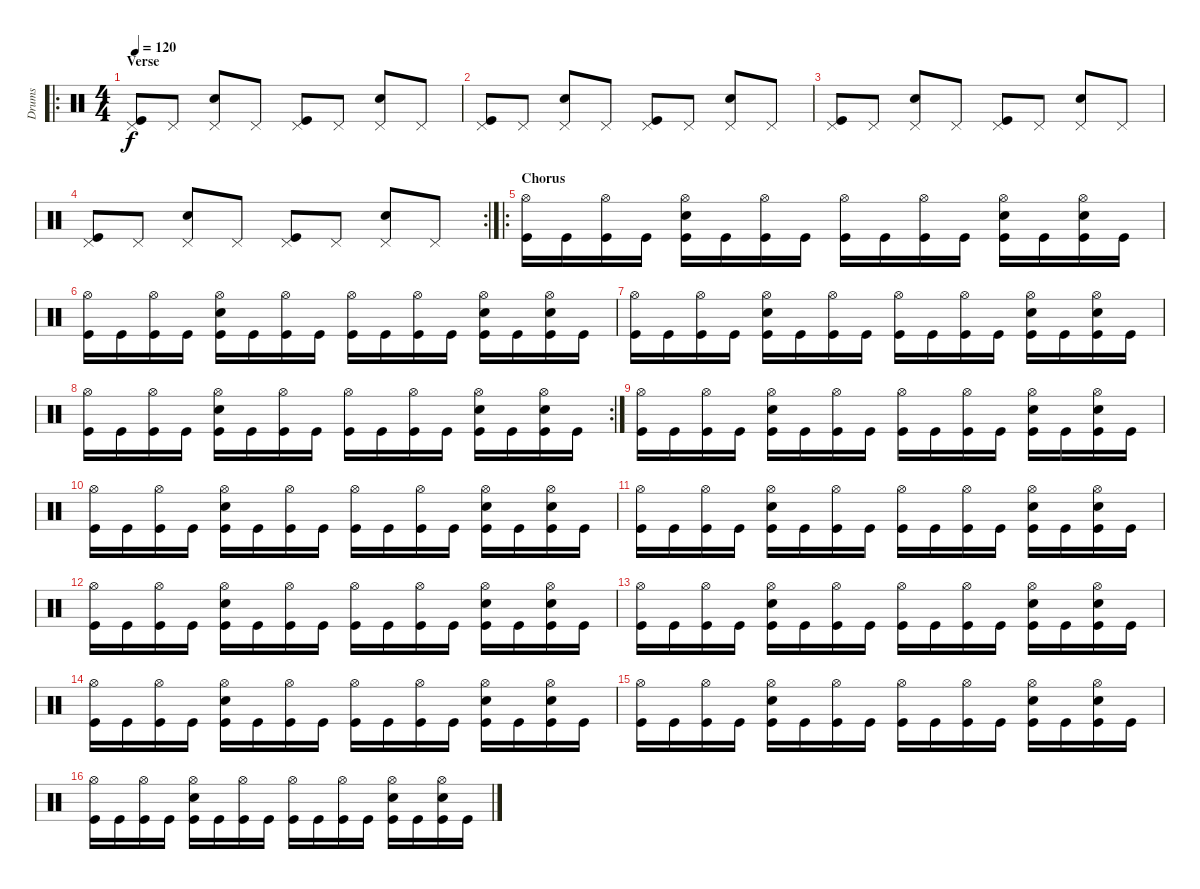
\track ("Drums" "Drums") {instrument percussion}
\staff {score}
\articulation defaults
\ro
\ts (4 4)
\section ("" "Verse")
\tempo 120
\clef neutral
\ks c
("Pedal Hi-Hat (hit)" "Kick (hit)").8{dy f} "Pedal Hi-Hat (hit)".8 ("Pedal Hi-Hat (hit)" "Snare (hit) 2").8 "Pedal Hi-Hat (hit)".8 ("Pedal Hi-Hat (hit)" "Kick (hit)").8 "Pedal Hi-Hat (hit)".8 ("Pedal Hi-Hat (hit)" "Snare (hit) 2").8 "Pedal Hi-Hat (hit)".8 |
("Pedal Hi-Hat (hit)" "Kick (hit)").8 "Pedal Hi-Hat (hit)".8 ("Pedal Hi-Hat (hit)" "Snare (hit) 2").8 "Pedal Hi-Hat (hit)".8 ("Pedal Hi-Hat (hit)" "Kick (hit)").8 "Pedal Hi-Hat (hit)".8 ("Pedal Hi-Hat (hit)" "Snare (hit) 2").8 "Pedal Hi-Hat (hit)".8 |
("Pedal Hi-Hat (hit)" "Kick (hit)").8 "Pedal Hi-Hat (hit)".8 ("Pedal Hi-Hat (hit)" "Snare (hit) 2").8 "Pedal Hi-Hat (hit)".8 ("Pedal Hi-Hat (hit)" "Kick (hit)").8 "Pedal Hi-Hat (hit)".8 ("Pedal Hi-Hat (hit)" "Snare (hit) 2").8 "Pedal Hi-Hat (hit)".8 |
\rc 2
("Pedal Hi-Hat (hit)" "Kick (hit)").8 "Pedal Hi-Hat (hit)".8 ("Pedal Hi-Hat (hit)" "Snare (hit) 2").8 "Pedal Hi-Hat (hit)".8 ("Pedal Hi-Hat (hit)" "Kick (hit)").8 "Pedal Hi-Hat (hit)".8 ("Pedal Hi-Hat (hit)" "Snare (hit) 2").8 "Pedal Hi-Hat (hit)".8 |
\ro
\section ("" "Chorus")
("Hi-Hat (open)" "Kick (hit)").16 "Kick (hit)".16 ("Hi-Hat (open)" "Kick (hit)").16 "Kick (hit)".16 ("Hi-Hat (open)" "Snare (hit) 2" "Kick (hit)").16 "Kick (hit)".16 ("Hi-Hat (open)" "Kick (hit)").16 "Kick (hit)".16 ("Hi-Hat (open)" "Kick (hit)").16 "Kick (hit)".16 ("Hi-Hat (open)" "Kick (hit)").16 "Kick (hit)".16 ("Hi-Hat (open)" "Snare (hit) 2" "Kick (hit)").16 "Kick (hit)".16 ("Hi-Hat (open)" "Snare (hit) 2" "Kick (hit)").16 "Kick (hit)".16 |
("Hi-Hat (open)" "Kick (hit)").16 "Kick (hit)".16 ("Hi-Hat (open)" "Kick (hit)").16 "Kick (hit)".16 ("Hi-Hat (open)" "Snare (hit) 2" "Kick (hit)").16 "Kick (hit)".16 ("Hi-Hat (open)" "Kick (hit)").16 "Kick (hit)".16 ("Hi-Hat (open)" "Kick (hit)").16 "Kick (hit)".16 ("Hi-Hat (open)" "Kick (hit)").16 "Kick (hit)".16 ("Hi-Hat (open)" "Snare (hit) 2" "Kick (hit)").16 "Kick (hit)".16 ("Hi-Hat (open)" "Snare (hit) 2" "Kick (hit)").16 "Kick (hit)".16 |
("Hi-Hat (open)" "Kick (hit)").16 "Kick (hit)".16 ("Hi-Hat (open)" "Kick (hit)").16 "Kick (hit)".16 ("Hi-Hat (open)" "Snare (hit) 2" "Kick (hit)").16 "Kick (hit)".16 ("Hi-Hat (open)" "Kick (hit)").16 "Kick (hit)".16 ("Hi-Hat (open)" "Kick (hit)").16 "Kick (hit)".16 ("Hi-Hat (open)" "Kick (hit)").16 "Kick (hit)".16 ("Hi-Hat (open)" "Snare (hit) 2" "Kick (hit)").16 "Kick (hit)".16 ("Hi-Hat (open)" "Snare (hit) 2" "Kick (hit)").16 "Kick (hit)".16 |
\rc 2
("Hi-Hat (open)" "Kick (hit)").16 "Kick (hit)".16 ("Hi-Hat (open)" "Kick (hit)").16 "Kick (hit)".16 ("Hi-Hat (open)" "Snare (hit) 2" "Kick (hit)").16 "Kick (hit)".16 ("Hi-Hat (open)" "Kick (hit)").16 "Kick (hit)".16 ("Hi-Hat (open)" "Kick (hit)").16 "Kick (hit)".16 ("Hi-Hat (open)" "Kick (hit)").16 "Kick (hit)".16 ("Hi-Hat (open)" "Snare (hit) 2" "Kick (hit)").16 "Kick (hit)".16 ("Hi-Hat (open)" "Snare (hit) 2" "Kick (hit)").16 "Kick (hit)".16 |
("Hi-Hat (open)" "Kick (hit)").16 "Kick (hit)".16 ("Hi-Hat (open)" "Kick (hit)").16 "Kick (hit)".16 ("Hi-Hat (open)" "Snare (hit) 2" "Kick (hit)").16 "Kick (hit)".16 ("Hi-Hat (open)" "Kick (hit)").16 "Kick (hit)".16 ("Hi-Hat (open)" "Kick (hit)").16 "Kick (hit)".16 ("Hi-Hat (open)" "Kick (hit)").16 "Kick (hit)".16 ("Hi-Hat (open)" "Snare (hit) 2" "Kick (hit)").16 "Kick (hit)".16 ("Hi-Hat (open)" "Snare (hit) 2" "Kick (hit)").16 "Kick (hit)".16 |
("Hi-Hat (open)" "Kick (hit)").16 "Kick (hit)".16 ("Hi-Hat (open)" "Kick (hit)").16 "Kick (hit)".16 ("Hi-Hat (open)" "Snare (hit) 2" "Kick (hit)").16 "Kick (hit)".16 ("Hi-Hat (open)" "Kick (hit)").16 "Kick (hit)".16 ("Hi-Hat (open)" "Kick (hit)").16 "Kick (hit)".16 ("Hi-Hat (open)" "Kick (hit)").16 "Kick (hit)".16 ("Hi-Hat (open)" "Snare (hit) 2" "Kick (hit)").16 "Kick (hit)".16 ("Hi-Hat (open)" "Snare (hit) 2" "Kick (hit)").16 "Kick (hit)".16 |
("Hi-Hat (open)" "Kick (hit)").16 "Kick (hit)".16 ("Hi-Hat (open)" "Kick (hit)").16 "Kick (hit)".16 ("Hi-Hat (open)" "Snare (hit) 2" "Kick (hit)").16 "Kick (hit)".16 ("Hi-Hat (open)" "Kick (hit)").16 "Kick (hit)".16 ("Hi-Hat (open)" "Kick (hit)").16 "Kick (hit)".16 ("Hi-Hat (open)" "Kick (hit)").16 "Kick (hit)".16 ("Hi-Hat (open)" "Snare (hit) 2" "Kick (hit)").16 "Kick (hit)".16 ("Hi-Hat (open)" "Snare (hit) 2" "Kick (hit)").16 "Kick (hit)".16 |
("Hi-Hat (open)" "Kick (hit)").16 "Kick (hit)".16 ("Hi-Hat (open)" "Kick (hit)").16 "Kick (hit)".16 ("Hi-Hat (open)" "Snare (hit) 2" "Kick (hit)").16 "Kick (hit)".16 ("Hi-Hat (open)" "Kick (hit)").16 "Kick (hit)".16 ("Hi-Hat (open)" "Kick (hit)").16 "Kick (hit)".16 ("Hi-Hat (open)" "Kick (hit)").16 "Kick (hit)".16 ("Hi-Hat (open)" "Snare (hit) 2" "Kick (hit)").16 "Kick (hit)".16 ("Hi-Hat (open)" "Snare (hit) 2" "Kick (hit)").16 "Kick (hit)".16 |
("Hi-Hat (open)" "Kick (hit)").16 "Kick (hit)".16 ("Hi-Hat (open)" "Kick (hit)").16 "Kick (hit)".16 ("Hi-Hat (open)" "Snare (hit) 2" "Kick (hit)").16 "Kick (hit)".16 ("Hi-Hat (open)" "Kick (hit)").16 "Kick (hit)".16 ("Hi-Hat (open)" "Kick (hit)").16 "Kick (hit)".16 ("Hi-Hat (open)" "Kick (hit)").16 "Kick (hit)".16 ("Hi-Hat (open)" "Snare (hit) 2" "Kick (hit)").16 "Kick (hit)".16 ("Hi-Hat (open)" "Snare (hit) 2" "Kick (hit)").16 "Kick (hit)".16 |
("Hi-Hat (open)" "Kick (hit)").16 "Kick (hit)".16 ("Hi-Hat (open)" "Kick (hit)").16 "Kick (hit)".16 ("Hi-Hat (open)" "Snare (hit) 2" "Kick (hit)").16 "Kick (hit)".16 ("Hi-Hat (open)" "Kick (hit)").16 "Kick (hit)".16 ("Hi-Hat (open)" "Kick (hit)").16 "Kick (hit)".16 ("Hi-Hat (open)" "Kick (hit)").16 "Kick (hit)".16 ("Hi-Hat (open)" "Snare (hit) 2" "Kick (hit)").16 "Kick (hit)".16 ("Hi-Hat (open)" "Snare (hit) 2" "Kick (hit)").16 "Kick (hit)".16 |
("Hi-Hat (open)" "Kick (hit)").16 "Kick (hit)".16 ("Hi-Hat (open)" "Kick (hit)").16 "Kick (hit)".16 ("Hi-Hat (open)" "Snare (hit) 2" "Kick (hit)").16 "Kick (hit)".16 ("Hi-Hat (open)" "Kick (hit)").16 "Kick (hit)".16 ("Hi-Hat (open)" "Kick (hit)").16 "Kick (hit)".16 ("Hi-Hat (open)" "Kick (hit)").16 "Kick (hit)".16 ("Hi-Hat (open)" "Snare (hit) 2" "Kick (hit)").16 "Kick (hit)".16 ("Hi-Hat (open)" "Snare (hit) 2" "Kick (hit)").16 "Kick (hit)".16 |
("Hi-Hat (open)" "Kick (hit)").16 "Kick (hit)".16 ("Hi-Hat (open)" "Kick (hit)").16 "Kick (hit)".16 ("Hi-Hat (open)" "Snare (hit) 2" "Kick (hit)").16 "Kick (hit)".16 ("Hi-Hat (open)" "Kick (hit)").16 "Kick (hit)".16 ("Hi-Hat (open)" "Kick (hit)").16 "Kick (hit)".16 ("Hi-Hat (open)" "Kick (hit)").16 "Kick (hit)".16 ("Hi-Hat (open)" "Snare (hit) 2" "Kick (hit)").16 "Kick (hit)".16 ("Hi-Hat (open)" "Snare (hit) 2" "Kick (hit)").16 "Kick (hit)".16
